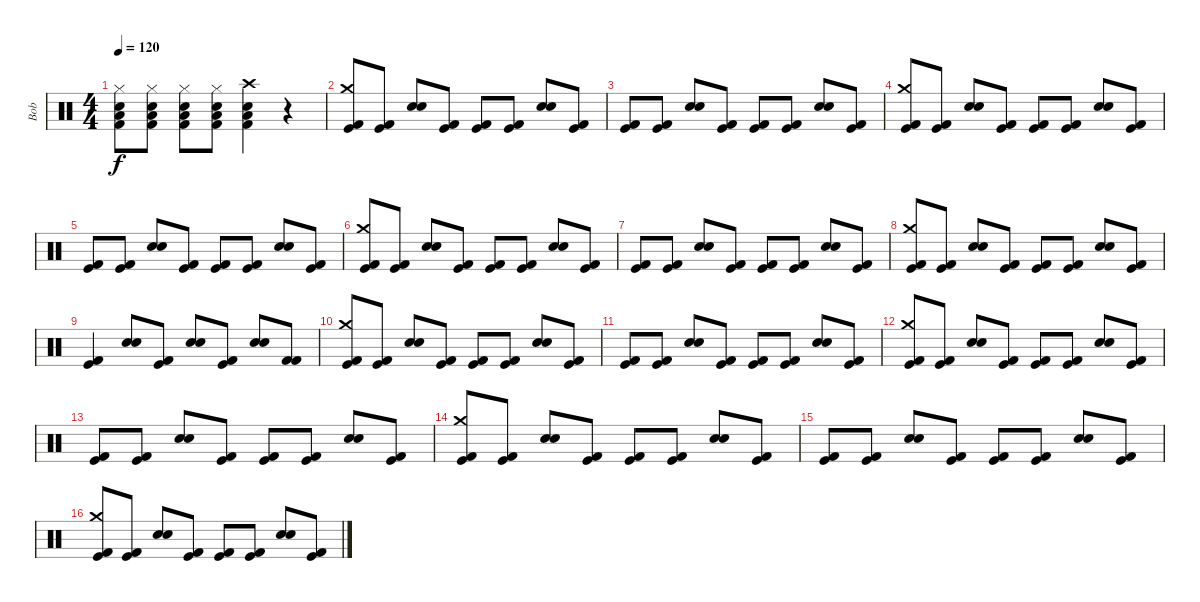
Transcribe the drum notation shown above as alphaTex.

\track ("Bob" "Bob") {instrument percussion}
\staff {score}
\articulation defaults
\ts (4 4)
\tempo 120
\clef neutral
\ks c
("Hi-Hat (closed)" "Snare (hit) 2" "Low Tom (hit)" "Kick (hit) 2").8{dy f} ("Hi-Hat (closed)" "Snare (hit) 2" "Low Tom (hit)" "Kick (hit) 2").8 ("Hi-Hat (closed)" "Snare (hit) 2" "Low Tom (hit)" "Kick (hit) 2").8 ("Hi-Hat (closed)" "Snare (hit) 2" "Low Tom (hit)" "Kick (hit) 2").8 ("Crash high (hit)" "Snare (hit) 2" "Low Tom (hit)" "Kick (hit) 2").4 r.4 |
("Crash medium (hit)" "Kick (hit)" "Kick (hit) 2").8 ("Kick (hit)" "Kick (hit) 2").8 ("Electric Snare (hit)" "Snare (hit) 2").8 ("Kick (hit)" "Kick (hit) 2").8 ("Kick (hit)" "Kick (hit) 2").8 ("Kick (hit)" "Kick (hit) 2").8 ("Electric Snare (hit)" "Snare (hit) 2").8 ("Kick (hit)" "Kick (hit) 2").8 |
("Kick (hit)" "Kick (hit) 2").8 ("Kick (hit)" "Kick (hit) 2").8 ("Electric Snare (hit)" "Snare (hit) 2").8 ("Kick (hit)" "Kick (hit) 2").8 ("Kick (hit)" "Kick (hit) 2").8 ("Kick (hit)" "Kick (hit) 2").8 ("Electric Snare (hit)" "Snare (hit) 2").8 ("Kick (hit)" "Kick (hit) 2").8 |
("Crash medium (hit)" "Kick (hit)" "Kick (hit) 2").8 ("Kick (hit)" "Kick (hit) 2").8 ("Electric Snare (hit)" "Snare (hit) 2").8 ("Kick (hit)" "Kick (hit) 2").8 ("Kick (hit)" "Kick (hit) 2").8 ("Kick (hit)" "Kick (hit) 2").8 ("Electric Snare (hit)" "Snare (hit) 2").8 ("Kick (hit)" "Kick (hit) 2").8 |
("Kick (hit)" "Kick (hit) 2").8 ("Kick (hit)" "Kick (hit) 2").8 ("Electric Snare (hit)" "Snare (hit) 2").8 ("Kick (hit)" "Kick (hit) 2").8 ("Kick (hit)" "Kick (hit) 2").8 ("Kick (hit)" "Kick (hit) 2").8 ("Electric Snare (hit)" "Snare (hit) 2").8 ("Kick (hit)" "Kick (hit) 2").8 |
("Crash medium (hit)" "Kick (hit)" "Kick (hit) 2").8 ("Kick (hit)" "Kick (hit) 2").8 ("Electric Snare (hit)" "Snare (hit) 2").8 ("Kick (hit)" "Kick (hit) 2").8 ("Kick (hit)" "Kick (hit) 2").8 ("Kick (hit)" "Kick (hit) 2").8 ("Electric Snare (hit)" "Snare (hit) 2").8 ("Kick (hit)" "Kick (hit) 2").8 |
("Kick (hit)" "Kick (hit) 2").8 ("Kick (hit)" "Kick (hit) 2").8 ("Electric Snare (hit)" "Snare (hit) 2").8 ("Kick (hit)" "Kick (hit) 2").8 ("Kick (hit)" "Kick (hit) 2").8 ("Kick (hit)" "Kick (hit) 2").8 ("Electric Snare (hit)" "Snare (hit) 2").8 ("Kick (hit)" "Kick (hit) 2").8 |
("Crash medium (hit)" "Kick (hit)" "Kick (hit) 2").8 ("Kick (hit)" "Kick (hit) 2").8 ("Electric Snare (hit)" "Snare (hit) 2").8 ("Kick (hit)" "Kick (hit) 2").8 ("Kick (hit)" "Kick (hit) 2").8 ("Kick (hit)" "Kick (hit) 2").8 ("Electric Snare (hit)" "Snare (hit) 2").8 ("Kick (hit)" "Kick (hit) 2").8 |
("Kick (hit)" "Kick (hit) 2").4 ("Electric Snare (hit)" "Snare (hit) 2").8 ("Kick (hit)" "Kick (hit) 2").8 ("Electric Snare (hit)" "Snare (hit) 2").8 ("Kick (hit)" "Kick (hit) 2").8 ("Electric Snare (hit)" "Snare (hit) 2").8 ("Kick (hit) 2" "Kick (hit) 2").8 |
("Crash medium (hit)" "Kick (hit)" "Kick (hit) 2").8 ("Kick (hit)" "Kick (hit) 2").8 ("Electric Snare (hit)" "Snare (hit) 2").8 ("Kick (hit)" "Kick (hit) 2").8 ("Kick (hit)" "Kick (hit) 2").8 ("Kick (hit)" "Kick (hit) 2").8 ("Electric Snare (hit)" "Snare (hit) 2").8 ("Kick (hit)" "Kick (hit) 2").8 |
("Kick (hit)" "Kick (hit) 2").8 ("Kick (hit)" "Kick (hit) 2").8 ("Electric Snare (hit)" "Snare (hit) 2").8 ("Kick (hit)" "Kick (hit) 2").8 ("Kick (hit)" "Kick (hit) 2").8 ("Kick (hit)" "Kick (hit) 2").8 ("Electric Snare (hit)" "Snare (hit) 2").8 ("Kick (hit)" "Kick (hit) 2").8 |
("Crash medium (hit)" "Kick (hit)" "Kick (hit) 2").8 ("Kick (hit)" "Kick (hit) 2").8 ("Electric Snare (hit)" "Snare (hit) 2").8 ("Kick (hit)" "Kick (hit) 2").8 ("Kick (hit)" "Kick (hit) 2").8 ("Kick (hit)" "Kick (hit) 2").8 ("Electric Snare (hit)" "Snare (hit) 2").8 ("Kick (hit)" "Kick (hit) 2").8 |
("Kick (hit)" "Kick (hit) 2").8 ("Kick (hit)" "Kick (hit) 2").8 ("Electric Snare (hit)" "Snare (hit) 2").8 ("Kick (hit)" "Kick (hit) 2").8 ("Kick (hit)" "Kick (hit) 2").8 ("Kick (hit)" "Kick (hit) 2").8 ("Electric Snare (hit)" "Snare (hit) 2").8 ("Kick (hit)" "Kick (hit) 2").8 |
("Crash medium (hit)" "Kick (hit)" "Kick (hit) 2").8 ("Kick (hit)" "Kick (hit) 2").8 ("Electric Snare (hit)" "Snare (hit) 2").8 ("Kick (hit)" "Kick (hit) 2").8 ("Kick (hit)" "Kick (hit) 2").8 ("Kick (hit)" "Kick (hit) 2").8 ("Electric Snare (hit)" "Snare (hit) 2").8 ("Kick (hit)" "Kick (hit) 2").8 |
("Kick (hit)" "Kick (hit) 2").8 ("Kick (hit)" "Kick (hit) 2").8 ("Electric Snare (hit)" "Snare (hit) 2").8 ("Kick (hit)" "Kick (hit) 2").8 ("Kick (hit)" "Kick (hit) 2").8 ("Kick (hit)" "Kick (hit) 2").8 ("Electric Snare (hit)" "Snare (hit) 2").8 ("Kick (hit)" "Kick (hit) 2").8 |
("Crash medium (hit)" "Kick (hit)" "Kick (hit) 2").8 ("Kick (hit)" "Kick (hit) 2").8 ("Electric Snare (hit)" "Snare (hit) 2").8 ("Kick (hit)" "Kick (hit) 2").8 ("Kick (hit)" "Kick (hit) 2").8 ("Kick (hit)" "Kick (hit) 2").8 ("Electric Snare (hit)" "Snare (hit) 2").8 ("Kick (hit)" "Kick (hit) 2").8
